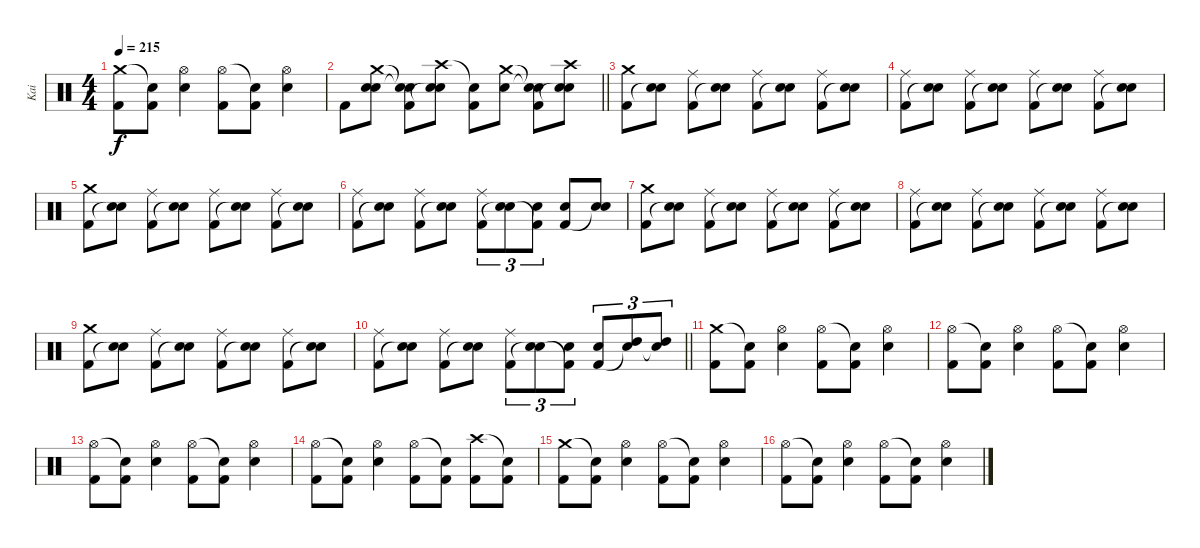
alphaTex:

\track ("Kai" "Kai") {instrument percussion}
\staff {score}
\articulation defaults
\ts (4 4)
\tempo 215
\clef neutral
\ks c
("Crash medium (hit)" "Kick (hit) 2").8{dy f} ("Snare (hit)"{t} "Kick (hit) 2").8 ("Hi-Hat (open)" "Snare (hit) 2").4 ("Hi-Hat (open)" "Kick (hit) 2").8 ("Snare (hit)"{t} "Kick (hit) 2").8 ("Hi-Hat (open)" "Snare (hit) 2").4 |
\barLineRight lightlight "Kick (hit) 2".8
("Crash medium (hit)" "Snare (hit) 2" "Snare (hit)").8 ("Snare (hit)"{t} "Snare (hit)"{t} "Kick (hit) 2").8 ("Crash high (hit)" "Snare (hit) 2" "Snare (hit)"{t}).8 ("Snare (hit)"{t} "Kick (hit) 2").8 ("Crash medium (hit)" "Snare (hit) 2").8 ("Snare (hit)"{t} "Snare (hit)"{t} "Kick (hit) 2").8 ("Crash high (hit)" "Snare (hit) 2" "Snare (hit)"{t}).8 |
("Crash medium (hit)" "Kick (hit) 2").8 ("Snare (hit) 2" "Snare (hit)"{t}).8 ("Ride (middle)" "Kick (hit) 2").8 ("Snare (hit) 2" "Snare (hit)"{t}).8 ("Ride (middle)" "Kick (hit) 2").8 ("Snare (hit) 2" "Snare (hit)"{t}).8 ("Ride (middle)" "Kick (hit) 2").8 ("Snare (hit) 2" "Snare (hit)"{t}).8 |
("Ride (middle)" "Kick (hit) 2").8 ("Snare (hit) 2" "Snare (hit)"{t}).8 ("Ride (middle)" "Kick (hit) 2").8 ("Snare (hit) 2" "Snare (hit)"{t}).8 ("Ride (middle)" "Kick (hit) 2").8 ("Snare (hit) 2" "Snare (hit)"{t}).8 ("Ride (middle)" "Kick (hit) 2").8 ("Snare (hit) 2" "Snare (hit)"{t}).8 |
("Crash medium (hit)" "Kick (hit) 2").8 ("Snare (hit) 2" "Snare (hit)"{t}).8 ("Ride (middle)" "Kick (hit) 2").8 ("Snare (hit) 2" "Snare (hit)"{t}).8 ("Ride (middle)" "Kick (hit) 2").8 ("Snare (hit) 2" "Snare (hit)"{t}).8 ("Ride (middle)" "Kick (hit) 2").8 ("Snare (hit) 2" "Snare (hit)"{t}).8 |
("Ride (middle)" "Kick (hit) 2").8 ("Snare (hit) 2" "Snare (hit)"{t}).8 ("Ride (middle)" "Kick (hit) 2").8 ("Snare (hit) 2" "Snare (hit)"{t}).8 ("Ride (middle)" "Kick (hit) 2").8{tu (3 2)} ("Snare (hit) 2" "Snare (hit)"{t}).8{tu (3 2)} ("Snare (hit) 2" "Kick (hit) 2"{t}).8{tu (3 2)} ("Snare (hit) 2" "Kick (hit) 2").8 ("Snare (hit) 2" "Snare (hit)"{t}).8 |
("Crash medium (hit)" "Kick (hit) 2").8 ("Snare (hit) 2" "Snare (hit)"{t}).8 ("Ride (middle)" "Kick (hit) 2").8 ("Snare (hit) 2" "Snare (hit)"{t}).8 ("Ride (middle)" "Kick (hit) 2").8 ("Snare (hit) 2" "Snare (hit)"{t}).8 ("Ride (middle)" "Kick (hit) 2").8 ("Snare (hit) 2" "Snare (hit)"{t}).8 |
("Ride (middle)" "Kick (hit) 2").8 ("Snare (hit) 2" "Snare (hit)"{t}).8 ("Ride (middle)" "Kick (hit) 2").8 ("Snare (hit) 2" "Snare (hit)"{t}).8 ("Ride (middle)" "Kick (hit) 2").8 ("Snare (hit) 2" "Snare (hit)"{t}).8 ("Ride (middle)" "Kick (hit) 2").8 ("Snare (hit) 2" "Snare (hit)"{t}).8 |
("Crash medium (hit)" "Kick (hit) 2").8 ("Snare (hit) 2" "Snare (hit)"{t}).8 ("Ride (middle)" "Kick (hit) 2").8 ("Snare (hit) 2" "Snare (hit)"{t}).8 ("Ride (middle)" "Kick (hit) 2").8 ("Snare (hit) 2" "Snare (hit)"{t}).8 ("Ride (middle)" "Kick (hit) 2").8 ("Snare (hit) 2" "Snare (hit)"{t}).8 |
\barLineRight lightlight
("Ride (middle)" "Kick (hit) 2").8 ("Snare (hit) 2" "Snare (hit)"{t}).8 ("Ride (middle)" "Kick (hit) 2").8 ("Snare (hit) 2" "Snare (hit)"{t}).8 ("Ride (middle)" "Kick (hit) 2").8{tu (3 2)} ("Snare (hit) 2" "Snare (hit)"{t}).8{tu (3 2)} ("Snare (hit) 2" "Kick (hit) 2"{t}).8{tu (3 2)} ("Snare (hit) 2" "Kick (hit) 2").8{tu (3 2)} ("High Tom (hit)" "Snare (hit)"{t}).8{tu (3 2)} ("High Tom (hit)" "Snare (hit)"{t}).8{tu (3 2)} |
("Crash medium (hit)" "Kick (hit) 2").8 ("Snare (hit)"{t} "Kick (hit) 2").8 ("Hi-Hat (open)" "Snare (hit) 2").4 ("Hi-Hat (open)" "Kick (hit) 2").8 ("Snare (hit)"{t} "Kick (hit) 2").8 ("Hi-Hat (open)" "Snare (hit) 2").4 |
("Hi-Hat (open)" "Kick (hit) 2").8 ("Snare (hit)"{t} "Kick (hit) 2").8 ("Hi-Hat (open)" "Snare (hit) 2").4 ("Hi-Hat (open)" "Kick (hit) 2").8 ("Snare (hit)"{t} "Kick (hit) 2").8 ("Hi-Hat (open)" "Snare (hit) 2").4 |
("Hi-Hat (open)" "Kick (hit) 2").8 ("Snare (hit)"{t} "Kick (hit) 2").8 ("Hi-Hat (open)" "Snare (hit) 2").4 ("Hi-Hat (open)" "Kick (hit) 2").8 ("Snare (hit)"{t} "Kick (hit) 2").8 ("Hi-Hat (open)" "Snare (hit) 2").4 |
("Hi-Hat (open)" "Kick (hit) 2").8 ("Snare (hit)"{t} "Kick (hit) 2").8 ("Hi-Hat (open)" "Snare (hit) 2").4 ("Hi-Hat (open)" "Kick (hit) 2").8 ("Snare (hit)"{t} "Kick (hit) 2").8 ("Crash high (hit)" "Kick (hit) 2").8 ("Snare (hit)"{t} "Kick (hit) 2").8 |
("Crash medium (hit)" "Kick (hit) 2").8 ("Snare (hit)"{t} "Kick (hit) 2").8 ("Hi-Hat (open)" "Snare (hit) 2").4 ("Hi-Hat (open)" "Kick (hit) 2").8 ("Snare (hit)"{t} "Kick (hit) 2").8 ("Hi-Hat (open)" "Snare (hit) 2").4 |
("Hi-Hat (open)" "Kick (hit) 2").8 ("Snare (hit)"{t} "Kick (hit) 2").8 ("Hi-Hat (open)" "Snare (hit) 2").4 ("Hi-Hat (open)" "Kick (hit) 2").8 ("Snare (hit)"{t} "Kick (hit) 2").8 ("Hi-Hat (open)" "Snare (hit) 2").4
